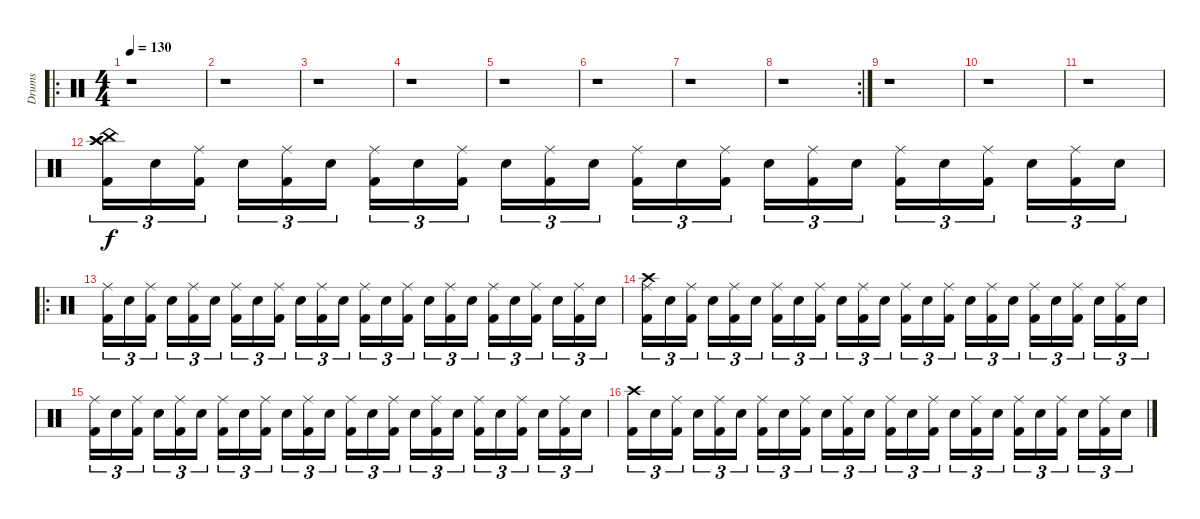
\track ("Drums" "Drums") {instrument percussion}
\staff {score}
\articulation defaults
\ro
\ts (4 4)
\tempo 130
\clef neutral
\ks c
r.1{dy f} |
r.1 |
r.1 |
r.1 |
r.1 |
r.1 |
r.1 |
\rc 2
r.1 |
r.1 |
r.1 |
r.1 |
("China (hit)" "Crash high (hit)" "Crash high (hit)" "Kick (hit) 2").16{tu (3 2)} "Electric Snare (hit)".16{tu (3 2)} ("Ride (middle)" "Kick (hit) 2").16{tu (3 2)} "Electric Snare (hit)".16{tu (3 2)} ("Ride (middle)" "Kick (hit) 2").16{tu (3 2)} "Electric Snare (hit)".16{tu (3 2)} ("Ride (middle)" "Kick (hit) 2").16{tu (3 2)} "Electric Snare (hit)".16{tu (3 2)} ("Ride (middle)" "Kick (hit) 2").16{tu (3 2)} "Electric Snare (hit)".16{tu (3 2)} ("Ride (middle)" "Kick (hit) 2").16{tu (3 2)} "Electric Snare (hit)".16{tu (3 2)} ("Ride (middle)" "Kick (hit) 2").16{tu (3 2)} "Electric Snare (hit)".16{tu (3 2)} ("Ride (middle)" "Kick (hit) 2").16{tu (3 2)} "Electric Snare (hit)".16{tu (3 2)} ("Ride (middle)" "Kick (hit) 2").16{tu (3 2)} "Electric Snare (hit)".16{tu (3 2)} ("Ride (middle)" "Kick (hit) 2").16{tu (3 2)} "Electric Snare (hit)".16{tu (3 2)} ("Ride (middle)" "Kick (hit) 2").16{tu (3 2)} "Electric Snare (hit)".16{tu (3 2)} ("Ride (middle)" "Kick (hit) 2").16{tu (3 2)} "Electric Snare (hit)".16{tu (3 2)} |
\ro
("Ride (middle)" "Kick (hit) 2").16{tu (3 2)} "Electric Snare (hit)".16{tu (3 2)} ("Ride (middle)" "Kick (hit) 2").16{tu (3 2)} "Electric Snare (hit)".16{tu (3 2)} ("Ride (middle)" "Kick (hit) 2").16{tu (3 2)} "Electric Snare (hit)".16{tu (3 2)} ("Ride (middle)" "Kick (hit) 2").16{tu (3 2)} "Electric Snare (hit)".16{tu (3 2)} ("Ride (middle)" "Kick (hit) 2").16{tu (3 2)} "Electric Snare (hit)".16{tu (3 2)} ("Ride (middle)" "Kick (hit) 2").16{tu (3 2)} "Electric Snare (hit)".16{tu (3 2)} ("Ride (middle)" "Kick (hit) 2").16{tu (3 2)} "Electric Snare (hit)".16{tu (3 2)} ("Ride (middle)" "Kick (hit) 2").16{tu (3 2)} "Electric Snare (hit)".16{tu (3 2)} ("Ride (middle)" "Kick (hit) 2").16{tu (3 2)} "Electric Snare (hit)".16{tu (3 2)} ("Ride (middle)" "Kick (hit) 2").16{tu (3 2)} "Electric Snare (hit)".16{tu (3 2)} ("Ride (middle)" "Kick (hit) 2").16{tu (3 2)} "Electric Snare (hit)".16{tu (3 2)} ("Ride (middle)" "Kick (hit) 2").16{tu (3 2)} "Electric Snare (hit)".16{tu (3 2)} |
("Ride (middle)" "Kick (hit) 2" "Crash high (hit)").16{tu (3 2)} "Electric Snare (hit)".16{tu (3 2)} ("Ride (middle)" "Kick (hit) 2").16{tu (3 2)} "Electric Snare (hit)".16{tu (3 2)} ("Ride (middle)" "Kick (hit) 2").16{tu (3 2)} "Electric Snare (hit)".16{tu (3 2)} ("Ride (middle)" "Kick (hit) 2").16{tu (3 2)} "Electric Snare (hit)".16{tu (3 2)} ("Ride (middle)" "Kick (hit) 2").16{tu (3 2)} "Electric Snare (hit)".16{tu (3 2)} ("Ride (middle)" "Kick (hit) 2").16{tu (3 2)} "Electric Snare (hit)".16{tu (3 2)} ("Ride (middle)" "Kick (hit) 2").16{tu (3 2)} "Electric Snare (hit)".16{tu (3 2)} ("Ride (middle)" "Kick (hit) 2").16{tu (3 2)} "Electric Snare (hit)".16{tu (3 2)} ("Ride (middle)" "Kick (hit) 2").16{tu (3 2)} "Electric Snare (hit)".16{tu (3 2)} ("Ride (middle)" "Kick (hit) 2").16{tu (3 2)} "Electric Snare (hit)".16{tu (3 2)} ("Ride (middle)" "Kick (hit) 2").16{tu (3 2)} "Electric Snare (hit)".16{tu (3 2)} ("Ride (middle)" "Kick (hit) 2").16{tu (3 2)} "Electric Snare (hit)".16{tu (3 2)} |
("Ride (middle)" "Kick (hit) 2").16{tu (3 2)} "Electric Snare (hit)".16{tu (3 2)} ("Ride (middle)" "Kick (hit) 2").16{tu (3 2)} "Electric Snare (hit)".16{tu (3 2)} ("Ride (middle)" "Kick (hit) 2").16{tu (3 2)} "Electric Snare (hit)".16{tu (3 2)} ("Ride (middle)" "Kick (hit) 2").16{tu (3 2)} "Electric Snare (hit)".16{tu (3 2)} ("Ride (middle)" "Kick (hit) 2").16{tu (3 2)} "Electric Snare (hit)".16{tu (3 2)} ("Ride (middle)" "Kick (hit) 2").16{tu (3 2)} "Electric Snare (hit)".16{tu (3 2)} ("Ride (middle)" "Kick (hit) 2").16{tu (3 2)} "Electric Snare (hit)".16{tu (3 2)} ("Ride (middle)" "Kick (hit) 2").16{tu (3 2)} "Electric Snare (hit)".16{tu (3 2)} ("Ride (middle)" "Kick (hit) 2").16{tu (3 2)} "Electric Snare (hit)".16{tu (3 2)} ("Ride (middle)" "Kick (hit) 2").16{tu (3 2)} "Electric Snare (hit)".16{tu (3 2)} ("Ride (middle)" "Kick (hit) 2").16{tu (3 2)} "Electric Snare (hit)".16{tu (3 2)} ("Ride (middle)" "Kick (hit) 2").16{tu (3 2)} "Electric Snare (hit)".16{tu (3 2)} |
("Crash high (hit)" "Kick (hit) 2").16{tu (3 2)} "Electric Snare (hit)".16{tu (3 2)} ("Ride (middle)" "Kick (hit) 2").16{tu (3 2)} "Electric Snare (hit)".16{tu (3 2)} ("Ride (middle)" "Kick (hit) 2").16{tu (3 2)} "Electric Snare (hit)".16{tu (3 2)} ("Ride (middle)" "Kick (hit) 2").16{tu (3 2)} "Electric Snare (hit)".16{tu (3 2)} ("Ride (middle)" "Kick (hit) 2").16{tu (3 2)} "Electric Snare (hit)".16{tu (3 2)} ("Ride (middle)" "Kick (hit) 2").16{tu (3 2)} "Electric Snare (hit)".16{tu (3 2)} ("Ride (middle)" "Kick (hit) 2").16{tu (3 2)} "Electric Snare (hit)".16{tu (3 2)} ("Ride (middle)" "Kick (hit) 2").16{tu (3 2)} "Electric Snare (hit)".16{tu (3 2)} ("Ride (middle)" "Kick (hit) 2").16{tu (3 2)} "Electric Snare (hit)".16{tu (3 2)} ("Ride (middle)" "Kick (hit) 2").16{tu (3 2)} "Electric Snare (hit)".16{tu (3 2)} ("Ride (middle)" "Kick (hit) 2").16{tu (3 2)} "Electric Snare (hit)".16{tu (3 2)} ("Ride (middle)" "Kick (hit) 2").16{tu (3 2)} "Electric Snare (hit)".16{tu (3 2)}
